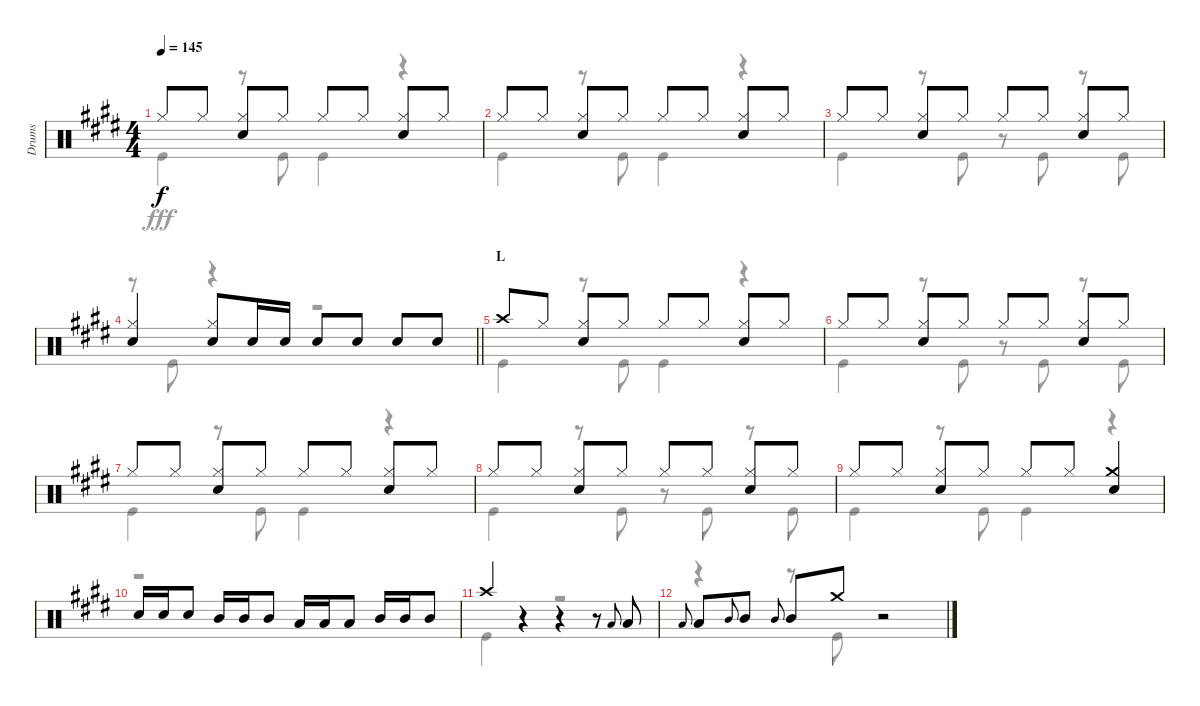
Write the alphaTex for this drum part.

\track ("Drums" "Drums") {instrument percussion}
\staff {score}
\articulation defaults
\voice
\ts (4 4)
\tempo 145
\clef neutral
\ks e "Hi-Hat (closed)".8{dy f} "Hi-Hat (closed)".8
("Hi-Hat (closed)" "Snare (hit) 2").8 "Hi-Hat (closed)".8 "Hi-Hat (closed)".8 "Hi-Hat (closed)".8 ("Hi-Hat (closed)" "Snare (hit) 2").8 "Hi-Hat (closed)".8 |
"Hi-Hat (closed)".8 "Hi-Hat (closed)".8 ("Hi-Hat (closed)" "Snare (hit) 2").8 "Hi-Hat (closed)".8 "Hi-Hat (closed)".8 "Hi-Hat (closed)".8 ("Hi-Hat (closed)" "Snare (hit) 2").8 "Hi-Hat (closed)".8 |
"Hi-Hat (closed)".8 "Hi-Hat (closed)".8 ("Hi-Hat (closed)" "Snare (hit) 2").8 "Hi-Hat (closed)".8 "Hi-Hat (closed)".8 "Hi-Hat (closed)".8 ("Hi-Hat (closed)" "Snare (hit) 2").8 "Hi-Hat (closed)".8 |
\barLineRight lightlight
("Hi-Hat (closed)" "Snare (hit) 2").4 ("Hi-Hat (closed)" "Snare (hit) 2").8 "Snare (hit) 2".16 "Snare (hit) 2".16 "Snare (hit) 2".8 "Snare (hit) 2".8 "Snare (hit) 2".8 "Snare (hit) 2".8 |
\section ("" "L")
"Crash high (hit)".8 "Hi-Hat (closed)".8 ("Hi-Hat (closed)" "Snare (hit) 2").8 "Hi-Hat (closed)".8 "Hi-Hat (closed)".8 "Hi-Hat (closed)".8 ("Hi-Hat (closed)" "Snare (hit) 2").8 "Hi-Hat (closed)".8 |
"Hi-Hat (closed)".8 "Hi-Hat (closed)".8 ("Hi-Hat (closed)" "Snare (hit) 2").8 "Hi-Hat (closed)".8 "Hi-Hat (closed)".8 "Hi-Hat (closed)".8 ("Hi-Hat (closed)" "Snare (hit) 2").8 "Hi-Hat (closed)".8 |
"Hi-Hat (closed)".8 "Hi-Hat (closed)".8 ("Hi-Hat (closed)" "Snare (hit) 2").8 "Hi-Hat (closed)".8 "Hi-Hat (closed)".8 "Hi-Hat (closed)".8 ("Hi-Hat (closed)" "Snare (hit) 2").8 "Hi-Hat (closed)".8 |
"Hi-Hat (closed)".8 "Hi-Hat (closed)".8 ("Hi-Hat (closed)" "Snare (hit) 2").8 "Hi-Hat (closed)".8 "Hi-Hat (closed)".8 "Hi-Hat (closed)".8 ("Hi-Hat (closed)" "Snare (hit) 2").8 "Hi-Hat (closed)".8 |
"Hi-Hat (closed)".8 "Hi-Hat (closed)".8 ("Hi-Hat (closed)" "Snare (hit) 2").8 "Hi-Hat (closed)".8 "Hi-Hat (closed)".8 "Hi-Hat (closed)".8 ("Crash medium (hit)" "Snare (hit) 2").4 |
"Snare (hit) 2".16 "Snare (hit) 2".16 "Snare (hit) 2".8 "Mid Tom (hit)".16 "Mid Tom (hit)".16 "Mid Tom (hit)".8 "Low Tom (hit)".16 "Low Tom (hit)".16 "Low Tom (hit)".8 "Mid Tom (hit)".16 "Mid Tom (hit)".16 "Mid Tom (hit)".8 |
"Crash high (hit)".4 r.4 r.4 r.8 "Low Tom (hit)".8{gr onbeat} "Low Tom (hit)".8 |
"Low Tom (hit)".8{gr onbeat} "Low Tom (hit)".8 "Mid Tom (hit)".8{gr onbeat} "Mid Tom (hit)".8 "Mid Tom (hit)".8{gr onbeat} "Mid Tom (hit)".8 "Crash medium (hit)".8 r.2
\voice
\clef neutral
\ottava regular
\simile none
\ks e "Kick (hit)".4{dy fff}
r.8 "Kick (hit)".8 "Kick (hit)".4 r.4 |
"Kick (hit)".4 r.8 "Kick (hit)".8 "Kick (hit)".4 r.4 |
"Kick (hit)".4 r.8 "Kick (hit)".8 r.8 "Kick (hit)".8 r.8 "Kick (hit)".8 |
\barLineRight lightlight
r.8 "Kick (hit)".8 r.4 r.2 |
"Kick (hit)".4 r.8 "Kick (hit)".8 "Kick (hit)".4 r.4 |
"Kick (hit)".4 r.8 "Kick (hit)".8 r.8 "Kick (hit)".8 r.8 "Kick (hit)".8 |
"Kick (hit)".4 r.8 "Kick (hit)".8 "Kick (hit)".4 r.4 |
"Kick (hit)".4 r.8 "Kick (hit)".8 r.8 "Kick (hit)".8 r.8 "Kick (hit)".8 |
"Kick (hit)".4 r.8 "Kick (hit)".8 "Kick (hit)".4 r.4 |
r.1 |
"Kick (hit)".4 r.4 r.2 |
r.4 r.8 "Kick (hit)".8 r.2
